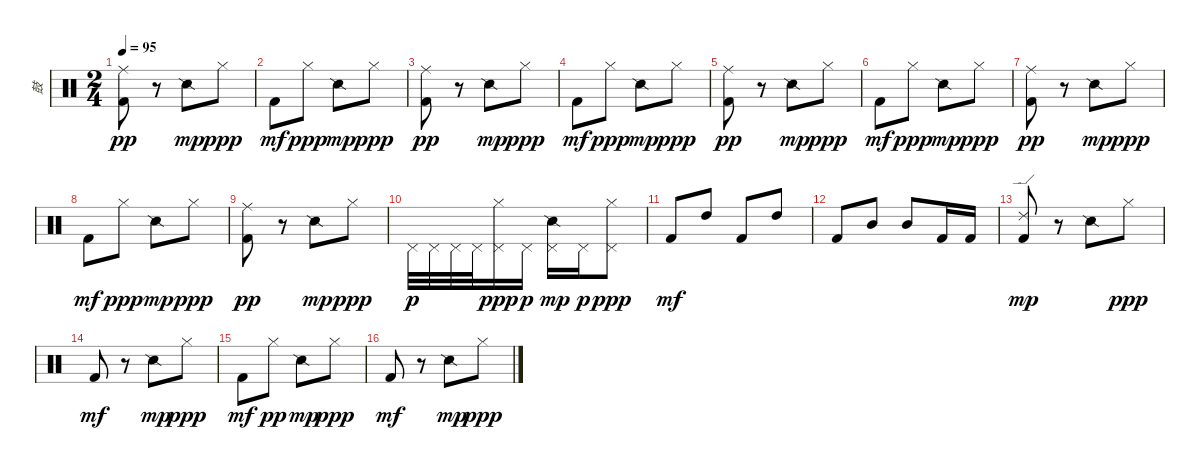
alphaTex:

\track ("鼓" "鼓") {instrument percussion}
\staff {score}
\articulation defaults
\ts (2 4)
\tempo 95
\clef neutral
\ks c
("Kick (hit) 2" "Ride (middle)").8{dy pp} r.8 "Snare (side stick) 2".8{dy mp} "Hi-Hat (closed)".8{dy ppp} |
"Kick (hit) 2".8{dy mf} "Hi-Hat (closed)".8{dy ppp} "Snare (side stick) 2".8{dy mp} "Hi-Hat (closed)".8{dy ppp} |
("Kick (hit) 2" "Ride (middle)").8{dy pp} r.8 "Snare (side stick) 2".8{dy mp} "Hi-Hat (closed)".8{dy ppp} |
"Kick (hit) 2".8{dy mf} "Hi-Hat (closed)".8{dy ppp} "Snare (side stick) 2".8{dy mp} "Hi-Hat (closed)".8{dy ppp} |
("Kick (hit) 2" "Ride (middle)").8{dy pp} r.8 "Snare (side stick) 2".8{dy mp} "Hi-Hat (closed)".8{dy ppp} |
"Kick (hit) 2".8{dy mf} "Hi-Hat (closed)".8{dy ppp} "Snare (side stick) 2".8{dy mp} "Hi-Hat (closed)".8{dy ppp} |
("Kick (hit) 2" "Ride (middle)").8{dy pp} r.8 "Snare (side stick) 2".8{dy mp} "Hi-Hat (closed)".8{dy ppp} |
"Kick (hit) 2".8{dy mf} "Hi-Hat (closed)".8{dy ppp} "Snare (side stick) 2".8{dy mp} "Hi-Hat (closed)".8{dy ppp} |
("Kick (hit) 2" "Ride (middle)").8{dy pp} r.8 "Snare (side stick) 2".8{dy mp} "Hi-Hat (closed)".8{dy ppp} |
"Pedal Hi-Hat (hit)".32{dy p} "Pedal Hi-Hat (hit)".32 "Pedal Hi-Hat (hit)".32 "Pedal Hi-Hat (hit)".32 ("Pedal Hi-Hat (hit)" "Hi-Hat (closed)").16{dy ppp} "Pedal Hi-Hat (hit)".16{dy p} ("Pedal Hi-Hat (hit)" "Snare (side stick) 2").16{dy mp} "Pedal Hi-Hat (hit)".16{dy p} ("Pedal Hi-Hat (hit)" "Hi-Hat (closed)").8{dy ppp} |
"Kick (hit) 2".8{dy mf} "High Tom (hit)".8 "Kick (hit) 2".8 "High Tom (hit)".8 |
"Kick (hit) 2".8 "Mid Tom (hit)".8 "Mid Tom (hit)".8 "Kick (hit) 2".16 "Kick (hit) 2".16 |
("Kick (hit) 2" "Ride (edge) 2").8{dy mp} r.8 "Snare (side stick) 2".8 "Hi-Hat (closed)".8{dy ppp} |
"Kick (hit) 2".8{dy mf} r.8 "Snare (side stick) 2".8{dy mp} "Hi-Hat (closed)".8{dy ppp} |
"Kick (hit) 2".8{dy mf} "Hi-Hat (closed)".8{dy pp} "Snare (side stick) 2".8{dy mp} "Hi-Hat (closed)".8{dy ppp} |
"Kick (hit) 2".8{dy mf} r.8 "Snare (side stick) 2".8{dy mp} "Hi-Hat (closed)".8{dy ppp}
